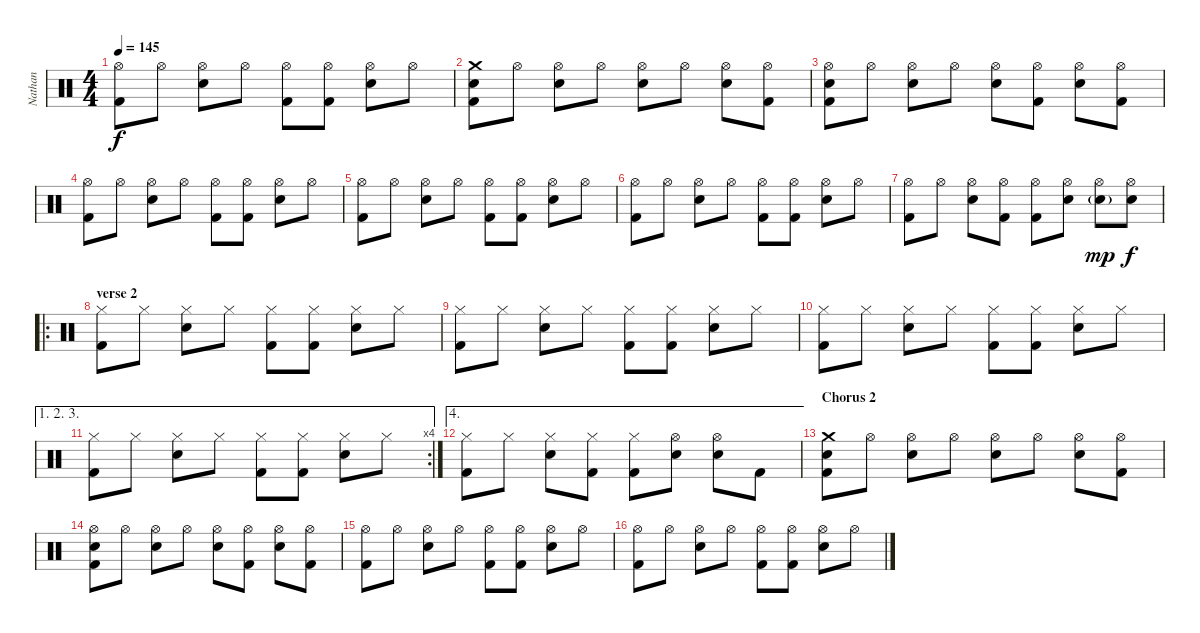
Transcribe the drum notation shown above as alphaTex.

\track ("Nathan" "Nathan") {instrument percussion}
\staff {score}
\articulation defaults
\ts (4 4)
\tempo 145
\clef neutral
\ks c
("Hi-Hat (open)" "Kick (hit) 2").8{dy f} "Hi-Hat (open)".8 ("Hi-Hat (open)" "Electric Snare (hit)").8 "Hi-Hat (open)".8 ("Hi-Hat (open)" "Kick (hit) 2").8 ("Hi-Hat (open)" "Kick (hit) 2").8 ("Hi-Hat (open)" "Electric Snare (hit)").8 "Hi-Hat (open)".8 |
("Crash medium (hit)" "Electric Snare (hit)" "Kick (hit) 2").8 "Hi-Hat (open)".8 ("Hi-Hat (open)" "Electric Snare (hit)").8 "Hi-Hat (open)".8 ("Hi-Hat (open)" "Electric Snare (hit)").8 "Hi-Hat (open)".8 ("Hi-Hat (open)" "Electric Snare (hit)").8 ("Hi-Hat (open)" "Kick (hit) 2").8 |
("Hi-Hat (open)" "Electric Snare (hit)" "Kick (hit) 2").8 "Hi-Hat (open)".8 ("Hi-Hat (open)" "Electric Snare (hit)").8 "Hi-Hat (open)".8 ("Hi-Hat (open)" "Electric Snare (hit)").8 ("Hi-Hat (open)" "Kick (hit) 2").8 ("Hi-Hat (open)" "Electric Snare (hit)").8 ("Hi-Hat (open)" "Kick (hit) 2").8 |
("Hi-Hat (open)" "Kick (hit) 2").8 "Hi-Hat (open)".8 ("Hi-Hat (open)" "Electric Snare (hit)").8 "Hi-Hat (open)".8 ("Hi-Hat (open)" "Kick (hit) 2").8 ("Hi-Hat (open)" "Kick (hit) 2").8 ("Hi-Hat (open)" "Electric Snare (hit)").8 "Hi-Hat (open)".8 |
("Hi-Hat (open)" "Kick (hit) 2").8 "Hi-Hat (open)".8 ("Hi-Hat (open)" "Electric Snare (hit)").8 "Hi-Hat (open)".8 ("Hi-Hat (open)" "Kick (hit) 2").8 ("Hi-Hat (open)" "Kick (hit) 2").8 ("Hi-Hat (open)" "Electric Snare (hit)").8 "Hi-Hat (open)".8 |
("Hi-Hat (open)" "Kick (hit) 2").8 "Hi-Hat (open)".8 ("Hi-Hat (open)" "Electric Snare (hit)").8 "Hi-Hat (open)".8 ("Hi-Hat (open)" "Kick (hit) 2").8 ("Hi-Hat (open)" "Kick (hit) 2").8 ("Hi-Hat (open)" "Electric Snare (hit)").8 "Hi-Hat (open)".8 |
("Hi-Hat (open)" "Kick (hit) 2").8 "Hi-Hat (open)".8 ("Hi-Hat (open)" "Electric Snare (hit)").8 ("Hi-Hat (open)" "Kick (hit) 2").8 ("Hi-Hat (open)" "Kick (hit) 2").8 ("Hi-Hat (open)" "Electric Snare (hit)").8 ("Hi-Hat (open)" "Electric Snare (hit)"{g}).8{dy mp} ("Hi-Hat (open)" "Electric Snare (hit)").8{dy f} |
\ro
\section ("" "verse 2")
("Hi-Hat (closed)" "Kick (hit) 2").8 "Hi-Hat (closed)".8 ("Hi-Hat (closed)" "Electric Snare (hit)").8 "Hi-Hat (closed)".8 ("Hi-Hat (closed)" "Kick (hit) 2").8 ("Hi-Hat (closed)" "Kick (hit) 2").8 ("Hi-Hat (closed)" "Electric Snare (hit)").8 "Hi-Hat (closed)".8 |
("Hi-Hat (closed)" "Kick (hit) 2").8 "Hi-Hat (closed)".8 ("Hi-Hat (closed)" "Electric Snare (hit)").8 "Hi-Hat (closed)".8 ("Hi-Hat (closed)" "Kick (hit) 2").8 ("Hi-Hat (closed)" "Kick (hit) 2").8 ("Hi-Hat (closed)" "Electric Snare (hit)").8 "Hi-Hat (closed)".8 |
("Hi-Hat (closed)" "Kick (hit) 2").8 "Hi-Hat (closed)".8 ("Hi-Hat (closed)" "Electric Snare (hit)").8 "Hi-Hat (closed)".8 ("Hi-Hat (closed)" "Kick (hit) 2").8 ("Hi-Hat (closed)" "Kick (hit) 2").8 ("Hi-Hat (closed)" "Electric Snare (hit)").8 "Hi-Hat (closed)".8 |
\ae (1 2 3)
\rc 4
("Hi-Hat (closed)" "Kick (hit) 2").8 "Hi-Hat (closed)".8 ("Hi-Hat (closed)" "Electric Snare (hit)").8 "Hi-Hat (closed)".8 ("Hi-Hat (closed)" "Kick (hit) 2").8 ("Hi-Hat (closed)" "Kick (hit) 2").8 ("Hi-Hat (closed)" "Electric Snare (hit)").8 "Hi-Hat (closed)".8 |
\ae 4
("Hi-Hat (closed)" "Kick (hit) 2").8 "Hi-Hat (closed)".8 ("Hi-Hat (closed)" "Electric Snare (hit)").8 ("Hi-Hat (closed)" "Kick (hit) 2").8 ("Hi-Hat (closed)" "Kick (hit) 2").8 ("Hi-Hat (open)" "Electric Snare (hit)").8 ("Hi-Hat (open)" "Electric Snare (hit)").8 "Kick (hit) 2".8 |
\section ("" "Chorus 2")
("Crash medium (hit)" "Electric Snare (hit)" "Kick (hit) 2").8 "Hi-Hat (open)".8 ("Hi-Hat (open)" "Electric Snare (hit)").8 "Hi-Hat (open)".8 ("Hi-Hat (open)" "Electric Snare (hit)").8 "Hi-Hat (open)".8 ("Hi-Hat (open)" "Electric Snare (hit)").8 ("Hi-Hat (open)" "Kick (hit) 2").8 |
("Hi-Hat (open)" "Electric Snare (hit)" "Kick (hit) 2").8 "Hi-Hat (open)".8 ("Hi-Hat (open)" "Electric Snare (hit)").8 "Hi-Hat (open)".8 ("Hi-Hat (open)" "Electric Snare (hit)").8 ("Hi-Hat (open)" "Kick (hit) 2").8 ("Hi-Hat (open)" "Electric Snare (hit)").8 ("Hi-Hat (open)" "Kick (hit) 2").8 |
("Hi-Hat (open)" "Kick (hit) 2").8 "Hi-Hat (open)".8 ("Hi-Hat (open)" "Electric Snare (hit)").8 "Hi-Hat (open)".8 ("Hi-Hat (open)" "Kick (hit) 2").8 ("Hi-Hat (open)" "Kick (hit) 2").8 ("Hi-Hat (open)" "Electric Snare (hit)").8 "Hi-Hat (open)".8 |
("Hi-Hat (open)" "Kick (hit) 2").8 "Hi-Hat (open)".8 ("Hi-Hat (open)" "Electric Snare (hit)").8 "Hi-Hat (open)".8 ("Hi-Hat (open)" "Kick (hit) 2").8 ("Hi-Hat (open)" "Kick (hit) 2").8 ("Hi-Hat (open)" "Electric Snare (hit)").8 "Hi-Hat (open)".8
